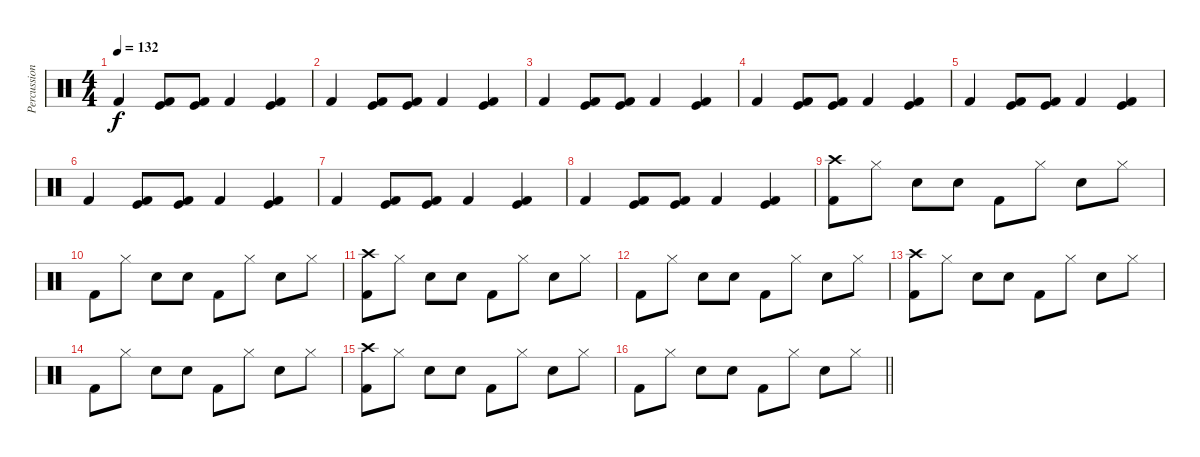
\track ("Percussions" "Percussion") {instrument percussion}
\staff {score}
\articulation defaults
\ts (4 4)
\tempo 132
\clef neutral
\ks c "Kick (hit) 2".4{dy f}
("Kick (hit) 2" "Kick (hit)").8 ("Kick (hit) 2" "Kick (hit)").8 "Kick (hit) 2".4 ("Kick (hit) 2" "Kick (hit)").4 |
"Kick (hit) 2".4 ("Kick (hit) 2" "Kick (hit)").8 ("Kick (hit) 2" "Kick (hit)").8 "Kick (hit) 2".4 ("Kick (hit) 2" "Kick (hit)").4 |
"Kick (hit) 2".4 ("Kick (hit) 2" "Kick (hit)").8 ("Kick (hit) 2" "Kick (hit)").8 "Kick (hit) 2".4 ("Kick (hit) 2" "Kick (hit)").4 |
"Kick (hit) 2".4 ("Kick (hit) 2" "Kick (hit)").8 ("Kick (hit) 2" "Kick (hit)").8 "Kick (hit) 2".4 ("Kick (hit) 2" "Kick (hit)").4 |
"Kick (hit) 2".4 ("Kick (hit) 2" "Kick (hit)").8 ("Kick (hit) 2" "Kick (hit)").8 "Kick (hit) 2".4 ("Kick (hit) 2" "Kick (hit)").4 |
"Kick (hit) 2".4 ("Kick (hit) 2" "Kick (hit)").8 ("Kick (hit) 2" "Kick (hit)").8 "Kick (hit) 2".4 ("Kick (hit) 2" "Kick (hit)").4 |
"Kick (hit) 2".4 ("Kick (hit) 2" "Kick (hit)").8 ("Kick (hit) 2" "Kick (hit)").8 "Kick (hit) 2".4 ("Kick (hit) 2" "Kick (hit)").4 |
"Kick (hit) 2".4 ("Kick (hit) 2" "Kick (hit)").8 ("Kick (hit) 2" "Kick (hit)").8 "Kick (hit) 2".4 ("Kick (hit) 2" "Kick (hit)").4 |
("Kick (hit) 2" "Crash high (hit)").8 "Hi-Hat (closed)".8 "Snare (hit) 2".8 "Snare (hit) 2".8 "Kick (hit) 2".8 "Hi-Hat (closed)".8 "Snare (hit) 2".8 "Hi-Hat (closed)".8 |
"Kick (hit) 2".8 "Hi-Hat (closed)".8 "Snare (hit) 2".8 "Snare (hit) 2".8 "Kick (hit) 2".8 "Hi-Hat (closed)".8 "Snare (hit) 2".8 "Hi-Hat (closed)".8 |
("Kick (hit) 2" "Crash high (hit)").8 "Hi-Hat (closed)".8 "Snare (hit) 2".8 "Snare (hit) 2".8 "Kick (hit) 2".8 "Hi-Hat (closed)".8 "Snare (hit) 2".8 "Hi-Hat (closed)".8 |
"Kick (hit) 2".8 "Hi-Hat (closed)".8 "Snare (hit) 2".8 "Snare (hit) 2".8 "Kick (hit) 2".8 "Hi-Hat (closed)".8 "Snare (hit) 2".8 "Hi-Hat (closed)".8 |
("Kick (hit) 2" "Crash high (hit)").8 "Hi-Hat (closed)".8 "Snare (hit) 2".8 "Snare (hit) 2".8 "Kick (hit) 2".8 "Hi-Hat (closed)".8 "Snare (hit) 2".8 "Hi-Hat (closed)".8 |
"Kick (hit) 2".8 "Hi-Hat (closed)".8 "Snare (hit) 2".8 "Snare (hit) 2".8 "Kick (hit) 2".8 "Hi-Hat (closed)".8 "Snare (hit) 2".8 "Hi-Hat (closed)".8 |
("Kick (hit) 2" "Crash high (hit)").8 "Hi-Hat (closed)".8 "Snare (hit) 2".8 "Snare (hit) 2".8 "Kick (hit) 2".8 "Hi-Hat (closed)".8 "Snare (hit) 2".8 "Hi-Hat (closed)".8 |
\barLineRight lightlight "Kick (hit) 2".8 "Hi-Hat (closed)".8 "Snare (hit) 2".8 "Snare (hit) 2".8 "Kick (hit) 2".8 "Hi-Hat (closed)".8 "Snare (hit) 2".8 "Hi-Hat (closed)".8
